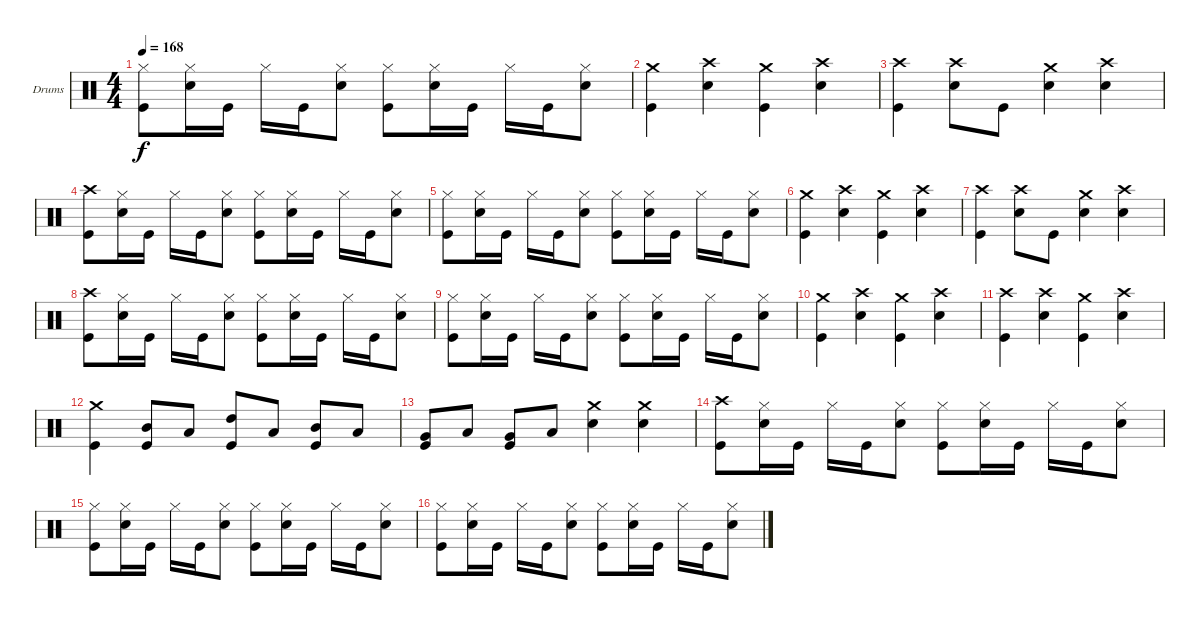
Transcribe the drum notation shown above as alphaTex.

\bracketExtendMode groupsimilarinstruments
\firstSystemTrackNameOrientation horizontal
\otherSystemsTrackNameOrientation horizontal
\track ("Drumkit" "Drums") {instrument percussion}
\staff {score}
\articulation defaults
\ts (4 4)
\tempo 168
\clef neutral
\ks c
("Hi-Hat (closed)" "Kick (hit)").8{dy f} ("Hi-Hat (closed)" "Snare (hit) 2").16 "Kick (hit)".16 "Hi-Hat (closed)".16 "Kick (hit)".16 ("Hi-Hat (closed)" "Snare (hit) 2").8 ("Hi-Hat (closed)" "Kick (hit)").8 ("Hi-Hat (closed)" "Snare (hit) 2").16 "Kick (hit)".16 "Hi-Hat (closed)".16 "Kick (hit)".16 ("Hi-Hat (closed)" "Snare (hit) 2").8 |
("Crash medium (hit)" "Kick (hit)").4 ("Crash high (hit)" "Snare (hit) 2").4 ("Crash medium (hit)" "Kick (hit)").4 ("Crash high (hit)" "Snare (hit) 2").4 |
("Crash high (hit)" "Kick (hit)").4 ("Crash high (hit)" "Snare (hit) 2").8 "Kick (hit)".8 ("Crash medium (hit)" "Snare (hit) 2").4 ("Crash high (hit)" "Snare (hit) 2").4 |
("Crash high (hit)" "Kick (hit)").8 ("Hi-Hat (closed)" "Snare (hit) 2").16 "Kick (hit)".16 "Hi-Hat (closed)".16 "Kick (hit)".16 ("Hi-Hat (closed)" "Snare (hit) 2").8 ("Hi-Hat (closed)" "Kick (hit)").8 ("Hi-Hat (closed)" "Snare (hit) 2").16 "Kick (hit)".16 "Hi-Hat (closed)".16 "Kick (hit)".16 ("Hi-Hat (closed)" "Snare (hit) 2").8 |
("Hi-Hat (closed)" "Kick (hit)").8 ("Hi-Hat (closed)" "Snare (hit) 2").16 "Kick (hit)".16 "Hi-Hat (closed)".16 "Kick (hit)".16 ("Hi-Hat (closed)" "Snare (hit) 2").8 ("Hi-Hat (closed)" "Kick (hit)").8 ("Hi-Hat (closed)" "Snare (hit) 2").16 "Kick (hit)".16 "Hi-Hat (closed)".16 "Kick (hit)".16 ("Hi-Hat (closed)" "Snare (hit) 2").8 |
("Crash medium (hit)" "Kick (hit)").4 ("Crash high (hit)" "Snare (hit) 2").4 ("Crash medium (hit)" "Kick (hit)").4 ("Crash high (hit)" "Snare (hit) 2").4 |
("Crash high (hit)" "Kick (hit)").4 ("Crash high (hit)" "Snare (hit) 2").8 "Kick (hit)".8 ("Crash medium (hit)" "Snare (hit) 2").4 ("Crash high (hit)" "Snare (hit) 2").4 |
("Crash high (hit)" "Kick (hit)").8 ("Hi-Hat (closed)" "Snare (hit) 2").16 "Kick (hit)".16 "Hi-Hat (closed)".16 "Kick (hit)".16 ("Hi-Hat (closed)" "Snare (hit) 2").8 ("Hi-Hat (closed)" "Kick (hit)").8 ("Hi-Hat (closed)" "Snare (hit) 2").16 "Kick (hit)".16 "Hi-Hat (closed)".16 "Kick (hit)".16 ("Hi-Hat (closed)" "Snare (hit) 2").8 |
("Hi-Hat (closed)" "Kick (hit)").8 ("Hi-Hat (closed)" "Snare (hit) 2").16 "Kick (hit)".16 "Hi-Hat (closed)".16 "Kick (hit)".16 ("Hi-Hat (closed)" "Snare (hit) 2").8 ("Hi-Hat (closed)" "Kick (hit)").8 ("Hi-Hat (closed)" "Snare (hit) 2").16 "Kick (hit)".16 "Hi-Hat (closed)".16 "Kick (hit)".16 ("Hi-Hat (closed)" "Snare (hit) 2").8 |
("Crash medium (hit)" "Kick (hit)").4 ("Crash high (hit)" "Snare (hit) 2").4 ("Crash medium (hit)" "Kick (hit)").4 ("Crash high (hit)" "Snare (hit) 2").4 |
("Crash high (hit)" "Kick (hit)").4 ("Crash high (hit)" "Snare (hit) 2").4 ("Crash medium (hit)" "Kick (hit)").4 ("Crash high (hit)" "Snare (hit) 2").4 |
("Crash medium (hit)" "Kick (hit)").4 ("Mid Tom (hit)" "Kick (hit)").8 "Low Tom (hit)".8 ("High Tom (hit)" "Kick (hit)").8 "Low Tom (hit)".8 ("Mid Tom (hit)" "Kick (hit)").8 "Low Tom (hit)".8 |
("Very Low Tom (hit)" "Kick (hit)").8 "Low Tom (hit)".8 ("Very Low Tom (hit)" "Kick (hit)").8 "Low Tom (hit)".8 ("Crash medium (hit)" "Snare (hit) 2").4 ("Crash medium (hit)" "Snare (hit) 2").4 |
("Crash high (hit)" "Kick (hit)").8 ("Hi-Hat (closed)" "Snare (hit) 2").16 "Kick (hit)".16 "Hi-Hat (closed)".16 "Kick (hit)".16 ("Hi-Hat (closed)" "Snare (hit) 2").8 ("Hi-Hat (closed)" "Kick (hit)").8 ("Hi-Hat (closed)" "Snare (hit) 2").16 "Kick (hit)".16 "Hi-Hat (closed)".16 "Kick (hit)".16 ("Hi-Hat (closed)" "Snare (hit) 2").8 |
("Hi-Hat (closed)" "Kick (hit)").8 ("Hi-Hat (closed)" "Snare (hit) 2").16 "Kick (hit)".16 "Hi-Hat (closed)".16 "Kick (hit)".16 ("Hi-Hat (closed)" "Snare (hit) 2").8 ("Hi-Hat (closed)" "Kick (hit)").8 ("Hi-Hat (closed)" "Snare (hit) 2").16 "Kick (hit)".16 "Hi-Hat (closed)".16 "Kick (hit)".16 ("Hi-Hat (closed)" "Snare (hit) 2").8 |
("Hi-Hat (closed)" "Kick (hit)").8 ("Hi-Hat (closed)" "Snare (hit) 2").16 "Kick (hit)".16 "Hi-Hat (closed)".16 "Kick (hit)".16 ("Hi-Hat (closed)" "Snare (hit) 2").8 ("Hi-Hat (closed)" "Kick (hit)").8 ("Hi-Hat (closed)" "Snare (hit) 2").16 "Kick (hit)".16 "Hi-Hat (closed)".16 "Kick (hit)".16 ("Hi-Hat (closed)" "Snare (hit) 2").8
